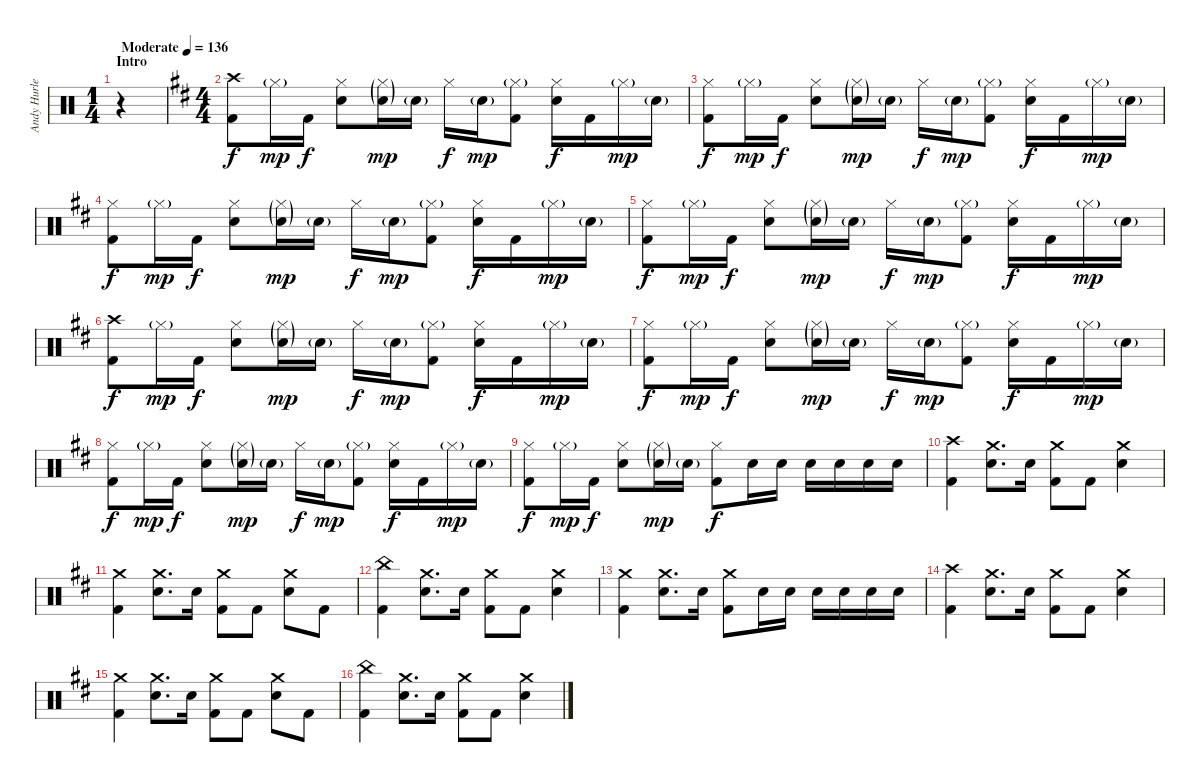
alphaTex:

\track ("Andy Hurley" "Andy Hurle") {instrument percussion}
\staff {score}
\articulation defaults
\ts (1 4)
\section ("" "Intro")
\tempo (136 "Moderate")
\clef neutral
\ks c
r.4{dy f} |
\ts (4 4)
\ks d
("Crash high (hit)" "Kick (hit) 2").8{volume 13} "Hi-Hat (closed)"{g}.16{dy mp} "Kick (hit) 2".16{dy f} ("Hi-Hat (closed)" "Snare (hit) 2").8 ("Hi-Hat (closed)"{g} "Snare (hit) 2"{g}).16{dy mp} "Snare (hit) 2"{g}.16 "Hi-Hat (closed)".16{dy f} "Snare (hit) 2"{g}.16{dy mp} ("Hi-Hat (closed)"{g} "Kick (hit) 2").8 ("Hi-Hat (closed)" "Snare (hit) 2").16{dy f} "Kick (hit) 2".16 "Hi-Hat (closed)"{g}.16{dy mp} "Snare (hit) 2"{g}.16 |
("Hi-Hat (closed)" "Kick (hit) 2").8{dy f} "Hi-Hat (closed)"{g}.16{dy mp} "Kick (hit) 2".16{dy f} ("Hi-Hat (closed)" "Snare (hit) 2").8 ("Hi-Hat (closed)"{g} "Snare (hit) 2"{g}).16{dy mp} "Snare (hit) 2"{g}.16 "Hi-Hat (closed)".16{dy f} "Snare (hit) 2"{g}.16{dy mp} ("Hi-Hat (closed)"{g} "Kick (hit) 2").8 ("Hi-Hat (closed)" "Snare (hit) 2").16{dy f} "Kick (hit) 2".16 "Hi-Hat (closed)"{g}.16{dy mp} "Snare (hit) 2"{g}.16 |
("Hi-Hat (closed)" "Kick (hit) 2").8{dy f} "Hi-Hat (closed)"{g}.16{dy mp} "Kick (hit) 2".16{dy f} ("Hi-Hat (closed)" "Snare (hit) 2").8 ("Hi-Hat (closed)"{g} "Snare (hit) 2"{g}).16{dy mp} "Snare (hit) 2"{g}.16 "Hi-Hat (closed)".16{dy f} "Snare (hit) 2"{g}.16{dy mp} ("Hi-Hat (closed)"{g} "Kick (hit) 2").8 ("Hi-Hat (closed)" "Snare (hit) 2").16{dy f} "Kick (hit) 2".16 "Hi-Hat (closed)"{g}.16{dy mp} "Snare (hit) 2"{g}.16 |
("Hi-Hat (closed)" "Kick (hit) 2").8{dy f} "Hi-Hat (closed)"{g}.16{dy mp} "Kick (hit) 2".16{dy f} ("Hi-Hat (closed)" "Snare (hit) 2").8 ("Hi-Hat (closed)"{g} "Snare (hit) 2"{g}).16{dy mp} "Snare (hit) 2"{g}.16 "Hi-Hat (closed)".16{dy f} "Snare (hit) 2"{g}.16{dy mp} ("Hi-Hat (closed)"{g} "Kick (hit) 2").8 ("Hi-Hat (closed)" "Snare (hit) 2").16{dy f} "Kick (hit) 2".16 "Hi-Hat (closed)"{g}.16{dy mp} "Snare (hit) 2"{g}.16 |
("Crash high (hit)" "Kick (hit) 2").8{dy f} "Hi-Hat (closed)"{g}.16{dy mp} "Kick (hit) 2".16{dy f} ("Hi-Hat (closed)" "Snare (hit) 2").8 ("Hi-Hat (closed)"{g} "Snare (hit) 2"{g}).16{dy mp} "Snare (hit) 2"{g}.16 "Hi-Hat (closed)".16{dy f} "Snare (hit) 2"{g}.16{dy mp} ("Hi-Hat (closed)"{g} "Kick (hit) 2").8 ("Hi-Hat (closed)" "Snare (hit) 2").16{dy f} "Kick (hit) 2".16 "Hi-Hat (closed)"{g}.16{dy mp} "Snare (hit) 2"{g}.16 |
("Hi-Hat (closed)" "Kick (hit) 2").8{dy f} "Hi-Hat (closed)"{g}.16{dy mp} "Kick (hit) 2".16{dy f} ("Hi-Hat (closed)" "Snare (hit) 2").8 ("Hi-Hat (closed)"{g} "Snare (hit) 2"{g}).16{dy mp} "Snare (hit) 2"{g}.16 "Hi-Hat (closed)".16{dy f} "Snare (hit) 2"{g}.16{dy mp} ("Hi-Hat (closed)"{g} "Kick (hit) 2").8 ("Hi-Hat (closed)" "Snare (hit) 2").16{dy f} "Kick (hit) 2".16 "Hi-Hat (closed)"{g}.16{dy mp} "Snare (hit) 2"{g}.16 |
("Hi-Hat (closed)" "Kick (hit) 2").8{dy f} "Hi-Hat (closed)"{g}.16{dy mp} "Kick (hit) 2".16{dy f} ("Hi-Hat (closed)" "Snare (hit) 2").8 ("Hi-Hat (closed)"{g} "Snare (hit) 2"{g}).16{dy mp} "Snare (hit) 2"{g}.16 "Hi-Hat (closed)".16{dy f} "Snare (hit) 2"{g}.16{dy mp} ("Hi-Hat (closed)"{g} "Kick (hit) 2").8 ("Hi-Hat (closed)" "Snare (hit) 2").16{dy f} "Kick (hit) 2".16 "Hi-Hat (closed)"{g}.16{dy mp} "Snare (hit) 2"{g}.16 |
("Hi-Hat (closed)" "Kick (hit) 2").8{dy f} "Hi-Hat (closed)"{g}.16{dy mp} "Kick (hit) 2".16{dy f} ("Hi-Hat (closed)" "Snare (hit) 2").8 ("Hi-Hat (closed)"{g} "Snare (hit) 2"{g}).16{dy mp} "Snare (hit) 2"{g}.16 ("Hi-Hat (closed)" "Kick (hit) 2").8{dy f volume 16} "Snare (hit) 2".16 "Snare (hit) 2".16 "Snare (hit) 2".16 "Snare (hit) 2".16 "Snare (hit) 2".16 "Snare (hit) 2".16 |
("Crash high (hit)" "Kick (hit) 2").4 ("Crash medium (hit)" "Snare (hit) 2").8{d} "Snare (hit) 2".16 ("Crash medium (hit)" "Kick (hit) 2").8 "Kick (hit) 2".8 ("Crash medium (hit)" "Snare (hit) 2").4 |
("Crash medium (hit)" "Kick (hit) 2").4 ("Crash medium (hit)" "Snare (hit) 2").8{d} "Snare (hit) 2".16 ("Crash medium (hit)" "Kick (hit) 2").8 "Kick (hit) 2".8 ("Crash medium (hit)" "Snare (hit) 2").8 "Kick (hit) 2".8 |
("China (hit)" "Kick (hit) 2").4 ("Crash medium (hit)" "Snare (hit) 2").8{d} "Snare (hit) 2".16 ("Crash medium (hit)" "Kick (hit) 2").8 "Kick (hit) 2".8 ("Crash medium (hit)" "Snare (hit) 2").4 |
("Crash medium (hit)" "Kick (hit) 2").4 ("Crash medium (hit)" "Snare (hit) 2").8{d} "Snare (hit) 2".16 ("Crash medium (hit)" "Kick (hit) 2").8 "Snare (hit) 2".16 "Snare (hit) 2".16 "Snare (hit) 2".16 "Snare (hit) 2".16 "Snare (hit) 2".16 "Snare (hit) 2".16 |
("Crash high (hit)" "Kick (hit) 2").4 ("Crash medium (hit)" "Snare (hit) 2").8{d} "Snare (hit) 2".16 ("Crash medium (hit)" "Kick (hit) 2").8 "Kick (hit) 2".8 ("Crash medium (hit)" "Snare (hit) 2").4 |
("Crash medium (hit)" "Kick (hit) 2").4 ("Crash medium (hit)" "Snare (hit) 2").8{d} "Snare (hit) 2".16 ("Crash medium (hit)" "Kick (hit) 2").8 "Kick (hit) 2".8 ("Crash medium (hit)" "Snare (hit) 2").8 "Kick (hit) 2".8 |
("China (hit)" "Kick (hit) 2").4 ("Crash medium (hit)" "Snare (hit) 2").8{d} "Snare (hit) 2".16 ("Crash medium (hit)" "Kick (hit) 2").8 "Kick (hit) 2".8 ("Crash medium (hit)" "Snare (hit) 2").4
